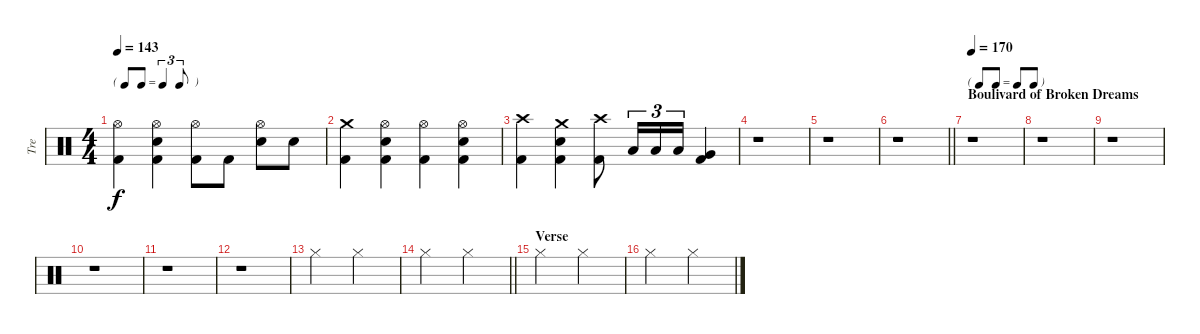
\track ("Tre" "Tre") {instrument percussion}
\staff {score}
\articulation defaults
\ts (4 4)
\tf triplet8th
\tempo 143
\clef neutral
\ks c
("Hi-Hat (open)" "Kick (hit) 2").4{dy f} ("Hi-Hat (open)" "Snare (hit) 2" "Kick (hit) 2").4 ("Hi-Hat (open)" "Kick (hit) 2").8 "Kick (hit) 2".8 ("Hi-Hat (open)" "Snare (hit) 2").8 "Snare (hit) 2".8 |
("Crash medium (hit)" "Kick (hit) 2").4 ("Hi-Hat (open)" "Snare (hit) 2" "Kick (hit) 2").4 ("Hi-Hat (open)" "Kick (hit) 2").4 ("Hi-Hat (open)" "Snare (hit) 2" "Kick (hit) 2").4 |
("Crash high (hit)" "Kick (hit) 2").4 ("Crash medium (hit)" "Snare (hit) 2" "Kick (hit) 2").4 ("Crash high (hit)" "Kick (hit) 2").8 "Low Tom (hit)".16{tu (3 2)} "Low Tom (hit)".16{tu (3 2)} "Low Tom (hit)".16{tu (3 2)} ("Very Low Tom (hit)" "Kick (hit) 2").4 |
r.1 |
r.1 |
\barLineRight lightlight
r.1 |
\tf none
\section ("" "Boulivard of Broken Dreams")
\tempo 170
r.1 |
r.1 |
r.1 |
r.1 |
r.1 |
r.1 |
"Hi-Hat (closed)".2 "Hi-Hat (closed)".2 |
\barLineRight lightlight "Hi-Hat (closed)".2 "Hi-Hat (closed)".2
|
\section ("" "Verse")
"Hi-Hat (closed)".2 "Hi-Hat (closed)".2 |
"Hi-Hat (closed)".2 "Hi-Hat (closed)".2
